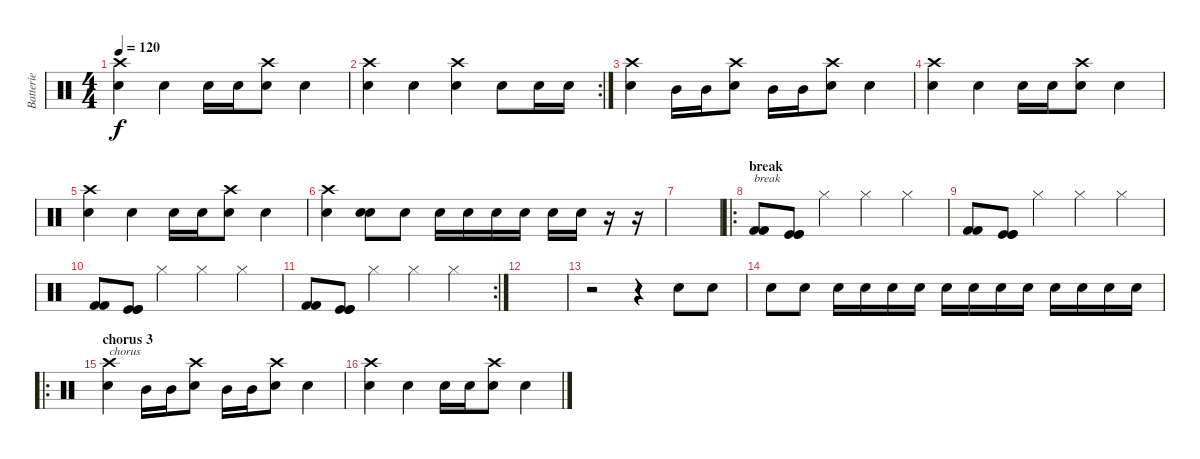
\track ("Batterie" "Batterie") {instrument percussion}
\staff {score}
\articulation defaults
\ts (4 4)
\tempo 120
\clef neutral
\ks c
("Crash high (hit)" "Electric Snare (hit)").4{dy f} "Electric Snare (hit)".4 "Electric Snare (hit)".16 "Electric Snare (hit)".16 ("Crash high (hit)" "Electric Snare (hit)").8 "Electric Snare (hit)".4 |
\rc 2
("Crash high (hit)" "Electric Snare (hit)").4 "Electric Snare (hit)".4 ("Crash high (hit)" "Electric Snare (hit)").4 "Electric Snare (hit)".8 "Electric Snare (hit)".16 "Electric Snare (hit)".16 |
("Crash high (hit)" "Electric Snare (hit)").4 "Mid Tom (hit)".16 "Mid Tom (hit)".16 ("Crash high (hit)" "Electric Snare (hit)").8 "Mid Tom (hit)".16 "Mid Tom (hit)".16 ("Crash high (hit)" "Electric Snare (hit)").8 "Electric Snare (hit)".4 |
("Crash high (hit)" "Electric Snare (hit)").4 "Electric Snare (hit)".4 "Electric Snare (hit)".16 "Electric Snare (hit)".16 ("Crash high (hit)" "Electric Snare (hit)").8 "Electric Snare (hit)".4 |
("Crash high (hit)" "Electric Snare (hit)").4 "Electric Snare (hit)".4 "Electric Snare (hit)".16 "Electric Snare (hit)".16 ("Crash high (hit)" "Electric Snare (hit)").8 "Electric Snare (hit)".4 |
("Crash high (hit)" "Electric Snare (hit)").4 ("Snare (hit) 2" "Electric Snare (hit)").8 "Snare (hit) 2".8 "Snare (hit) 2".16 "Snare (hit) 2".16 "Snare (hit) 2".16 "Snare (hit) 2".16 "Snare (hit) 2".16 "Snare (hit) 2".16 r.16 r.16 |
|
\ro
\section ("" "break")
("Kick (hit) 2" "Kick (hit) 2").8{txt "break"} ("Kick (hit)" "Kick (hit)" "Kick (hit)").8 "Hi-Hat (closed)".4 "Hi-Hat (closed)".4 "Hi-Hat (closed)".4 |
("Kick (hit) 2" "Kick (hit) 2").8 ("Kick (hit)" "Kick (hit)" "Kick (hit)").8 "Hi-Hat (closed)".4 "Hi-Hat (closed)".4 "Hi-Hat (closed)".4 |
("Kick (hit) 2" "Kick (hit) 2").8 ("Kick (hit)" "Kick (hit)" "Kick (hit)").8 "Hi-Hat (closed)".4 "Hi-Hat (closed)".4 "Hi-Hat (closed)".4 |
\rc 2
("Kick (hit) 2" "Kick (hit) 2").8 ("Kick (hit)" "Kick (hit)" "Kick (hit)").8 "Hi-Hat (closed)".4 "Hi-Hat (closed)".4 "Hi-Hat (closed)".4 |
|
r.2 r.4 "Electric Snare (hit)".8 "Electric Snare (hit)".8 |
"Electric Snare (hit)".8 "Electric Snare (hit)".8 "Electric Snare (hit)".16 "Electric Snare (hit)".16 "Electric Snare (hit)".16 "Electric Snare (hit)".16 "Electric Snare (hit)".16 "Electric Snare (hit)".16 "Electric Snare (hit)".16 "Electric Snare (hit)".16 "Electric Snare (hit)".16 "Electric Snare (hit)".16 "Electric Snare (hit)".16 "Electric Snare (hit)".16 |
\ro
\section ("" "chorus 3")
("Crash high (hit)" "Electric Snare (hit)").4{txt "chorus"} "Mid Tom (hit)".16 "Mid Tom (hit)".16 ("Crash high (hit)" "Electric Snare (hit)").8 "Mid Tom (hit)".16 "Mid Tom (hit)".16 ("Crash high (hit)" "Electric Snare (hit)").8 "Electric Snare (hit)".4 |
("Crash high (hit)" "Electric Snare (hit)").4 "Electric Snare (hit)".4 "Electric Snare (hit)".16 "Electric Snare (hit)".16 ("Crash high (hit)" "Electric Snare (hit)").8 "Electric Snare (hit)".4
